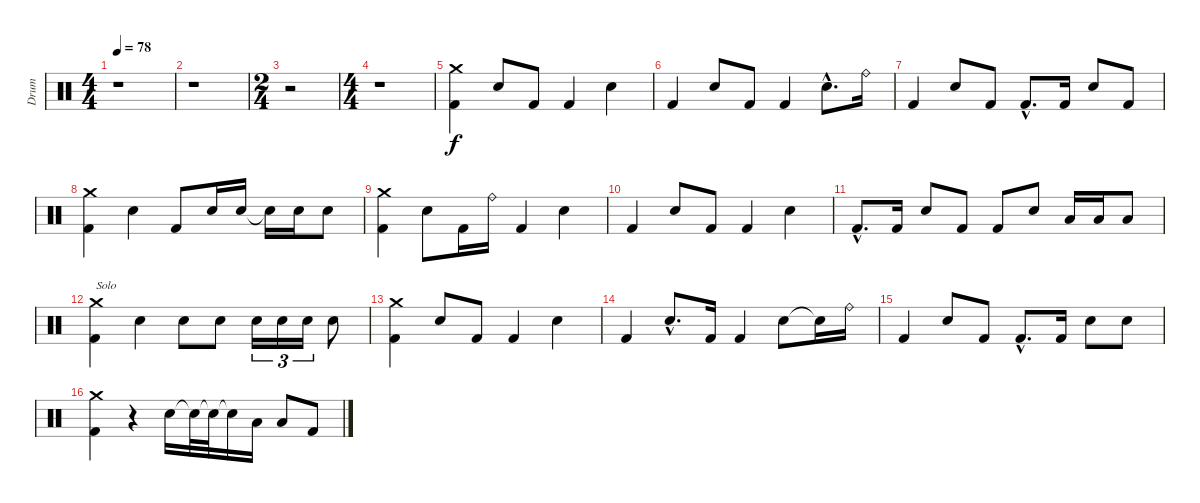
\track ("Drum" "Drum") {instrument percussion}
\staff {score}
\articulation defaults
\ts (4 4)
\tempo 78
\clef neutral
\ks c
r.1{dy f} |
r.1 |
\ts (2 4)
r.2 |
\ts (4 4)
r.1 |
("Crash medium (hit)" "Kick (hit) 2").4 "Electric Snare (hit)".8 "Kick (hit) 2".8 "Kick (hit) 2".4 "Electric Snare (hit)".4 |
"Kick (hit) 2".4 "Electric Snare (hit)".8 "Kick (hit) 2".8 "Kick (hit) 2".4 "Electric Snare (hit)"{hac}.8{d} "Ride (bell)".16 |
"Kick (hit) 2".4 "Electric Snare (hit)".8 "Kick (hit) 2".8 "Kick (hit) 2"{hac}.8{d} "Kick (hit) 2".16 "Electric Snare (hit)".8 "Kick (hit) 2".8 |
("Crash medium (hit)" "Kick (hit) 2").4 "Electric Snare (hit)".4 "Kick (hit) 2".8 "Electric Snare (hit)".16 "Electric Snare (hit)".16 "Snare (hit)"{t}.16 "Electric Snare (hit)".16 "Electric Snare (hit)".8 |
("Crash medium (hit)" "Kick (hit) 2").4 "Electric Snare (hit)".8 "Kick (hit) 2".16 "Ride (bell)".16 "Kick (hit) 2".4 "Electric Snare (hit)".4 |
"Kick (hit) 2".4 "Electric Snare (hit)".8 "Kick (hit) 2".8 "Kick (hit) 2".4 "Electric Snare (hit)".4 |
"Kick (hit) 2"{hac}.8{d} "Kick (hit) 2".16 "Electric Snare (hit)".8 "Kick (hit) 2".8 "Kick (hit) 2".8 "Electric Snare (hit)".8 "Low Floor Tom (hit)".16 "Low Floor Tom (hit)".16 "Low Floor Tom (hit)".8 |
("Crash medium (hit)" "Kick (hit) 2").4{txt "Solo"} "Electric Snare (hit)".4 "Electric Snare (hit)".8 "Electric Snare (hit)".8 "Electric Snare (hit)".16{tu (3 2)} "Electric Snare (hit)".16{tu (3 2)} "Electric Snare (hit)".16{tu (3 2)} "Electric Snare (hit)".8 |
("Crash medium (hit)" "Kick (hit) 2").4 "Electric Snare (hit)".8 "Kick (hit) 2".8 "Kick (hit) 2".4 "Electric Snare (hit)".4 |
"Kick (hit) 2".4 "Electric Snare (hit)"{hac}.8{d} "Kick (hit) 2".16 "Kick (hit) 2".4 "Electric Snare (hit)".8 "Snare (hit)"{t}.16 "Ride (bell)".16 |
"Kick (hit) 2".4 "Electric Snare (hit)".8 "Kick (hit) 2".8 "Kick (hit) 2"{hac}.8{d} "Kick (hit) 2".16 "Electric Snare (hit)".8 "Electric Snare (hit)".8 |
("Crash medium (hit)" "Kick (hit) 2").4 r.4 "Electric Snare (hit)".16 "Snare (hit)"{t}.32 "Snare (hit)"{t}.32 "Snare (hit)"{t}.16 "Low Floor Tom (hit)".16 "Low Floor Tom (hit)".8 "Kick (hit) 2".8
